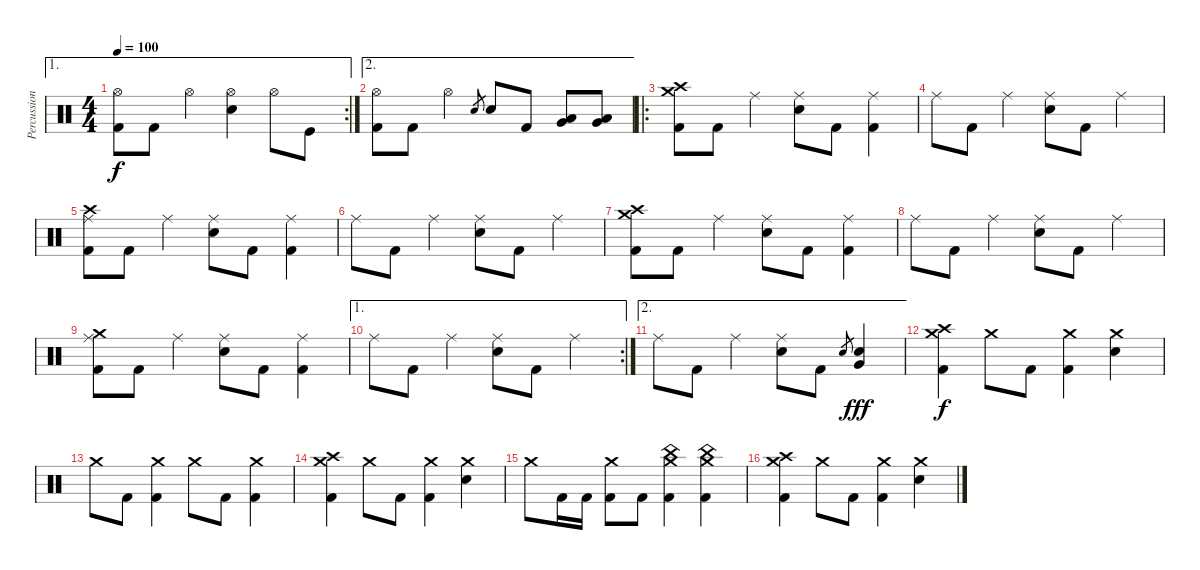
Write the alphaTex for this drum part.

\track ("Percussion" "Percussion") {instrument percussion}
\staff {score}
\articulation defaults
\ae 1
\rc 2
\ts (4 4)
\tempo 100
\clef neutral
\ks c
("Hi-Hat (open)" "Kick (hit) 2").8{dy f} "Kick (hit) 2".8 "Hi-Hat (open)".4 ("Hi-Hat (open)" "Snare (hit) 2").4 "Hi-Hat (open)".8 "Kick (hit)".8 |
\ae 2
("Hi-Hat (open)" "Kick (hit) 2").8 "Kick (hit) 2".8 "Hi-Hat (open)".4 "Snare (hit) 2".8{gr} "Snare (hit) 2".8 "Kick (hit) 2".8 ("Low Tom (hit)" "Very Low Tom (hit)").8 ("Very Low Tom (hit)" "Low Floor Tom (hit)").8 |
\ro
("Crash high (hit)" "Crash medium (hit)" "Kick (hit) 2").8 "Kick (hit) 2".8 "Ride (middle)".4 ("Ride (middle)" "Snare (hit) 2").8 "Kick (hit) 2".8 ("Ride (middle)" "Kick (hit) 2").4 |
"Ride (middle)".8 "Kick (hit) 2".8 "Ride (middle)".4 ("Ride (middle)" "Snare (hit) 2").8 "Kick (hit) 2".8 "Ride (middle)".4 |
("Ride (middle)" "Crash high (hit)" "Kick (hit) 2").8 "Kick (hit) 2".8 "Ride (middle)".4 ("Ride (middle)" "Snare (hit) 2").8 "Kick (hit) 2".8 ("Ride (middle)" "Kick (hit) 2").4 |
"Ride (middle)".8 "Kick (hit) 2".8 "Ride (middle)".4 ("Ride (middle)" "Snare (hit) 2").8 "Kick (hit) 2".8 "Ride (middle)".4 |
("Crash high (hit)" "Crash medium (hit)" "Kick (hit) 2").8 "Kick (hit) 2".8 "Ride (middle)".4 ("Ride (middle)" "Snare (hit) 2").8 "Kick (hit) 2".8 ("Ride (middle)" "Kick (hit) 2").4 |
"Ride (middle)".8 "Kick (hit) 2".8 "Ride (middle)".4 ("Ride (middle)" "Snare (hit) 2").8 "Kick (hit) 2".8 "Ride (middle)".4 |
("Ride (middle)" "Crash medium (hit)" "Kick (hit) 2").8 "Kick (hit) 2".8 "Ride (middle)".4 ("Ride (middle)" "Snare (hit) 2").8 "Kick (hit) 2".8 ("Ride (middle)" "Kick (hit) 2").4 |
\ae 1
\rc 2 "Ride (middle)".8 "Kick (hit) 2".8 "Ride (middle)".4
("Ride (middle)" "Snare (hit) 2").8 "Kick (hit) 2".8 "Ride (middle)".4 |
\ae 2 "Ride (middle)".8 "Kick (hit) 2".8 "Ride (middle)".4
("Ride (middle)" "Snare (hit) 2").8 "Kick (hit) 2".8 "Snare (hit) 2".8{gr} ("Very Low Tom (hit)" "Snare (hit) 2").4{dy fff} |
("Crash high (hit)" "Crash medium (hit)" "Kick (hit) 2").4{dy f} "Crash medium (hit)".8 "Kick (hit) 2".8 ("Crash medium (hit)" "Kick (hit) 2").4 ("Crash medium (hit)" "Snare (hit) 2").4 |
"Crash medium (hit)".8 "Kick (hit) 2".8 ("Crash medium (hit)" "Kick (hit) 2").4 "Crash medium (hit)".8 "Kick (hit) 2".8 ("Crash medium (hit)" "Kick (hit) 2").4 |
("Crash high (hit)" "Crash medium (hit)" "Kick (hit) 2").4 "Crash medium (hit)".8 "Kick (hit) 2".8 ("Crash medium (hit)" "Kick (hit) 2").4 ("Crash medium (hit)" "Snare (hit) 2").4 |
"Crash medium (hit)".8 "Kick (hit) 2".16 "Kick (hit) 2".16 ("Crash medium (hit)" "Kick (hit) 2").8 "Kick (hit) 2".8 ("Crash medium (hit)" "China (hit)" "Kick (hit) 2").4 ("Crash medium (hit)" "China (hit)" "Kick (hit) 2").4 |
("Crash high (hit)" "Crash medium (hit)" "Kick (hit) 2").4 "Crash medium (hit)".8 "Kick (hit) 2".8 ("Crash medium (hit)" "Kick (hit) 2").4 ("Crash medium (hit)" "Snare (hit) 2").4
